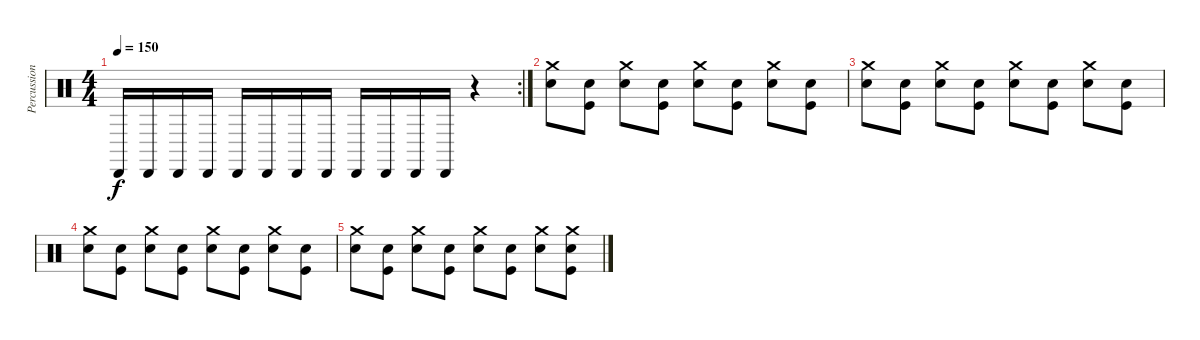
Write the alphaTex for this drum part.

\track ("Percussion" "Percussion") {instrument percussion}
\staff {score}
\articulation defaults
\rc 2
\ts (4 4)
\tempo 150
\clef neutral
\ks c "Cabasa (hit)".16{dy f} "Cabasa (hit)".16 "Cabasa (hit)".16 "Cabasa (hit)".16 "Cabasa (hit)".16 "Cabasa (hit)".16 "Cabasa (hit)".16 "Cabasa (hit)".16 "Cabasa (hit)".16 "Cabasa (hit)".16 "Cabasa (hit)".16 "Cabasa (hit)".16
r.4 |
("Electric Snare (hit)" "Crash medium (hit)").8 ("Electric Snare (hit)" "Kick (hit)").8 ("Electric Snare (hit)" "Crash medium (hit)").8 ("Electric Snare (hit)" "Kick (hit)").8 ("Electric Snare (hit)" "Crash medium (hit)").8 ("Electric Snare (hit)" "Kick (hit)").8 ("Electric Snare (hit)" "Crash medium (hit)").8 ("Electric Snare (hit)" "Kick (hit)").8 |
("Electric Snare (hit)" "Crash medium (hit)").8 ("Electric Snare (hit)" "Kick (hit)").8 ("Electric Snare (hit)" "Crash medium (hit)").8 ("Electric Snare (hit)" "Kick (hit)").8 ("Electric Snare (hit)" "Crash medium (hit)").8 ("Electric Snare (hit)" "Kick (hit)").8 ("Electric Snare (hit)" "Crash medium (hit)").8 ("Electric Snare (hit)" "Kick (hit)").8 |
("Electric Snare (hit)" "Crash medium (hit)").8 ("Electric Snare (hit)" "Kick (hit)").8 ("Electric Snare (hit)" "Crash medium (hit)").8 ("Electric Snare (hit)" "Kick (hit)").8 ("Electric Snare (hit)" "Crash medium (hit)").8 ("Electric Snare (hit)" "Kick (hit)").8 ("Electric Snare (hit)" "Crash medium (hit)").8 ("Electric Snare (hit)" "Kick (hit)").8 |
("Electric Snare (hit)" "Crash medium (hit)").8 ("Electric Snare (hit)" "Kick (hit)").8 ("Electric Snare (hit)" "Crash medium (hit)").8 ("Electric Snare (hit)" "Kick (hit)").8 ("Electric Snare (hit)" "Crash medium (hit)").8 ("Electric Snare (hit)" "Kick (hit)").8 ("Electric Snare (hit)" "Crash medium (hit)").8 ("Electric Snare (hit)" "Crash medium (hit)" "Kick (hit)").8
